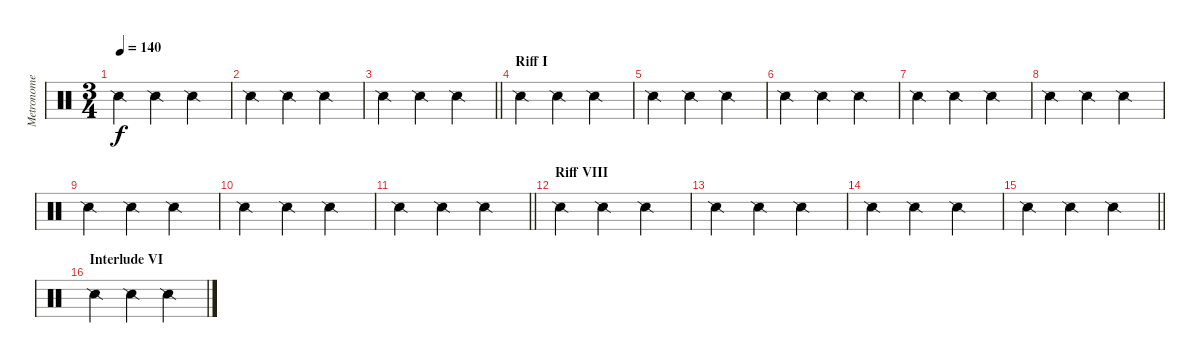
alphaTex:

\track ("Metronome" "Metronome") {instrument percussion}
\staff {score}
\articulation defaults
\ts (3 4)
\tempo 140
\clef neutral
\ks c "Snare (side stick) 2".4{dy f} "Snare (side stick) 2".4 "Snare (side stick) 2".4
|
"Snare (side stick) 2".4 "Snare (side stick) 2".4 "Snare (side stick) 2".4 |
\barLineRight lightlight "Snare (side stick) 2".4 "Snare (side stick) 2".4 "Snare (side stick) 2".4
|
\section ("" "Riff I")
"Snare (side stick) 2".4 "Snare (side stick) 2".4 "Snare (side stick) 2".4 |
"Snare (side stick) 2".4 "Snare (side stick) 2".4 "Snare (side stick) 2".4 |
"Snare (side stick) 2".4 "Snare (side stick) 2".4 "Snare (side stick) 2".4 |
"Snare (side stick) 2".4 "Snare (side stick) 2".4 "Snare (side stick) 2".4 |
"Snare (side stick) 2".4 "Snare (side stick) 2".4 "Snare (side stick) 2".4 |
"Snare (side stick) 2".4 "Snare (side stick) 2".4 "Snare (side stick) 2".4 |
"Snare (side stick) 2".4 "Snare (side stick) 2".4 "Snare (side stick) 2".4 |
\barLineRight lightlight "Snare (side stick) 2".4 "Snare (side stick) 2".4 "Snare (side stick) 2".4
|
\section ("" "Riff VIII")
"Snare (side stick) 2".4 "Snare (side stick) 2".4 "Snare (side stick) 2".4 |
"Snare (side stick) 2".4 "Snare (side stick) 2".4 "Snare (side stick) 2".4 |
"Snare (side stick) 2".4 "Snare (side stick) 2".4 "Snare (side stick) 2".4 |
\barLineRight lightlight "Snare (side stick) 2".4 "Snare (side stick) 2".4 "Snare (side stick) 2".4
|
\section ("" "Interlude VI")
"Snare (side stick) 2".4 "Snare (side stick) 2".4 "Snare (side stick) 2".4
